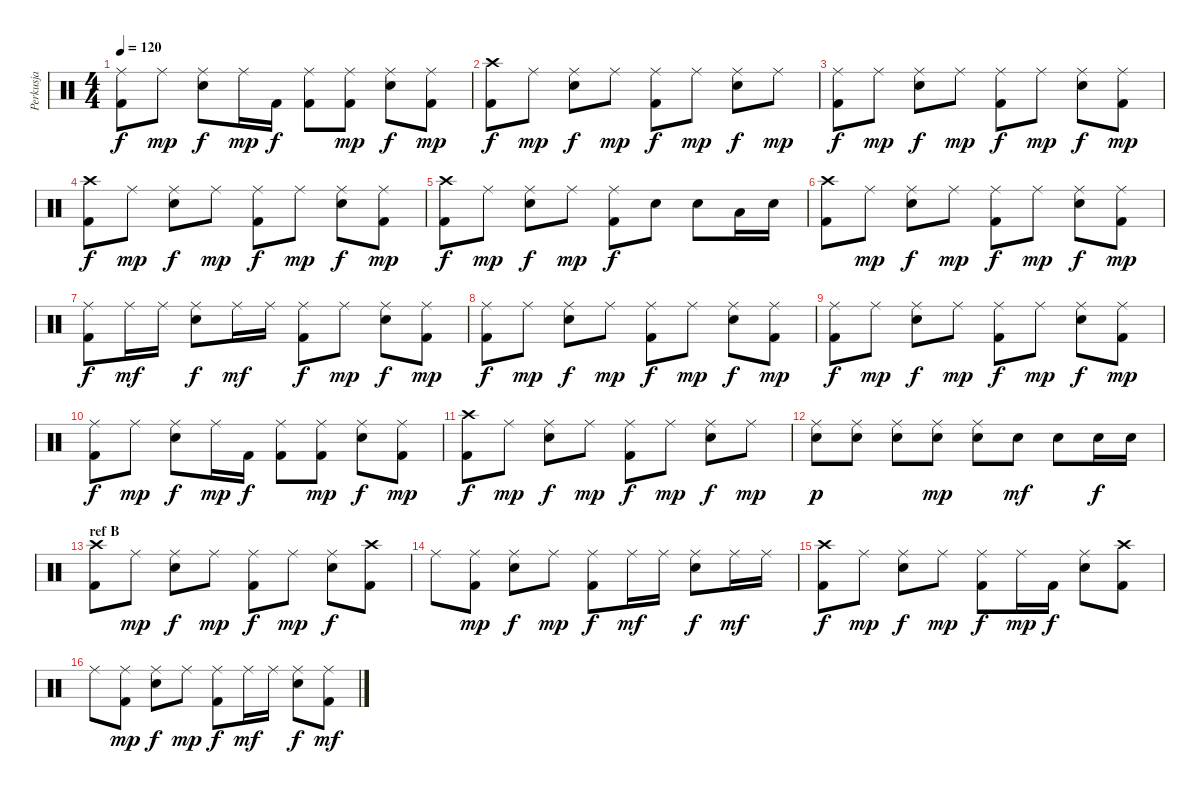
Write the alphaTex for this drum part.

\track ("Perkusja" "Perkusja") {instrument percussion}
\staff {score}
\articulation defaults
\ts (4 4)
\tempo 120
\clef neutral
\ks c
("Ride (middle)" "Kick (hit) 2").8{dy f} "Ride (middle)".8{dy mp} ("Ride (middle)" "Snare (hit) 2").8{dy f} "Ride (middle)".16{dy mp} "Kick (hit) 2".16{dy f} ("Ride (middle)" "Kick (hit) 2").8 ("Ride (middle)" "Kick (hit) 2").8{dy mp} ("Ride (middle)" "Snare (hit) 2").8{dy f} ("Ride (middle)" "Kick (hit) 2").8{dy mp} |
("Crash high (hit)" "Kick (hit) 2").8{dy f} "Ride (middle)".8{dy mp} ("Ride (middle)" "Snare (hit) 2").8{dy f} "Ride (middle)".8{dy mp} ("Ride (middle)" "Kick (hit) 2").8{dy f} "Ride (middle)".8{dy mp} ("Ride (middle)" "Snare (hit) 2").8{dy f} "Ride (middle)".8{dy mp} |
("Ride (middle)" "Kick (hit) 2").8{dy f} "Ride (middle)".8{dy mp} ("Ride (middle)" "Snare (hit) 2").8{dy f} "Ride (middle)".8{dy mp} ("Ride (middle)" "Kick (hit) 2").8{dy f} "Ride (middle)".8{dy mp} ("Ride (middle)" "Snare (hit) 2").8{dy f} ("Ride (middle)" "Kick (hit) 2").8{dy mp} |
("Crash high (hit)" "Kick (hit) 2").8{dy f} "Ride (middle)".8{dy mp} ("Ride (middle)" "Snare (hit) 2").8{dy f} "Ride (middle)".8{dy mp} ("Ride (middle)" "Kick (hit) 2").8{dy f} "Ride (middle)".8{dy mp} ("Ride (middle)" "Snare (hit) 2").8{dy f} ("Ride (middle)" "Kick (hit) 2").8{dy mp} |
("Crash high (hit)" "Kick (hit) 2").8{dy f} "Ride (middle)".8{dy mp} ("Ride (middle)" "Snare (hit) 2").8{dy f} "Ride (middle)".8{dy mp} ("Ride (middle)" "Kick (hit) 2").8{dy f} "Snare (hit) 2".8 "Snare (hit) 2".8 "Low Tom (hit)".16 "Snare (hit) 2".16 |
("Crash high (hit)" "Kick (hit) 2").8 "Ride (middle)".8{dy mp} ("Ride (middle)" "Snare (hit) 2").8{dy f} "Ride (middle)".8{dy mp} ("Ride (middle)" "Kick (hit) 2").8{dy f} "Ride (middle)".8{dy mp} ("Ride (middle)" "Snare (hit) 2").8{dy f} ("Ride (middle)" "Kick (hit) 2").8{dy mp} |
("Ride (middle)" "Kick (hit) 2").8{dy f} "Ride (middle)".16{dy mf} "Ride (middle)".16 ("Ride (middle)" "Snare (hit) 2").8{dy f} "Ride (middle)".16{dy mf} "Ride (middle)".16 ("Ride (middle)" "Kick (hit) 2").8{dy f} "Ride (middle)".8{dy mp} ("Ride (middle)" "Snare (hit) 2").8{dy f} ("Ride (middle)" "Kick (hit) 2").8{dy mp} |
("Ride (middle)" "Kick (hit) 2").8{dy f} "Ride (middle)".8{dy mp} ("Ride (middle)" "Snare (hit) 2").8{dy f} "Ride (middle)".8{dy mp} ("Ride (middle)" "Kick (hit) 2").8{dy f} "Ride (middle)".8{dy mp} ("Ride (middle)" "Snare (hit) 2").8{dy f} ("Ride (middle)" "Kick (hit) 2").8{dy mp} |
("Ride (middle)" "Kick (hit) 2").8{dy f} "Ride (middle)".8{dy mp} ("Ride (middle)" "Snare (hit) 2").8{dy f} "Ride (middle)".8{dy mp} ("Ride (middle)" "Kick (hit) 2").8{dy f} "Ride (middle)".8{dy mp} ("Ride (middle)" "Snare (hit) 2").8{dy f} ("Ride (middle)" "Kick (hit) 2").8{dy mp} |
("Ride (middle)" "Kick (hit) 2").8{dy f} "Ride (middle)".8{dy mp} ("Ride (middle)" "Snare (hit) 2").8{dy f} "Ride (middle)".16{dy mp} "Kick (hit) 2".16{dy f} ("Ride (middle)" "Kick (hit) 2").8 ("Ride (middle)" "Kick (hit) 2").8{dy mp} ("Ride (middle)" "Snare (hit) 2").8{dy f} ("Ride (middle)" "Kick (hit) 2").8{dy mp} |
("Crash high (hit)" "Kick (hit) 2").8{dy f} "Ride (middle)".8{dy mp} ("Ride (middle)" "Snare (hit) 2").8{dy f} "Ride (middle)".8{dy mp} ("Ride (middle)" "Kick (hit) 2").8{dy f} "Ride (middle)".8{dy mp} ("Ride (middle)" "Snare (hit) 2").8{dy f} "Ride (middle)".8{dy mp} |
("Ride (middle)" "Snare (hit) 2").8{dy p} ("Ride (middle)" "Snare (hit) 2").8 ("Ride (middle)" "Snare (hit) 2").8 ("Ride (middle)" "Snare (hit) 2").8{dy mp} ("Ride (middle)" "Snare (hit) 2").8 "Snare (hit) 2".8{dy mf} "Snare (hit) 2".8 "Snare (hit) 2".16{dy f} "Snare (hit) 2".16 |
\section ("" "ref B")
("Crash high (hit)" "Kick (hit) 2").8 "Ride (middle)".8{dy mp} ("Ride (middle)" "Snare (hit) 2").8{dy f} "Ride (middle)".8{dy mp} ("Ride (middle)" "Kick (hit) 2").8{dy f} "Ride (middle)".8{dy mp} ("Ride (middle)" "Snare (hit) 2").8{dy f} ("Crash high (hit)" "Kick (hit) 2").8 |
"Ride (middle)".8 ("Ride (middle)" "Kick (hit) 2").8{dy mp} ("Ride (middle)" "Snare (hit) 2").8{dy f} "Ride (middle)".8{dy mp} ("Ride (middle)" "Kick (hit) 2").8{dy f} "Ride (middle)".16{dy mf} "Ride (middle)".16 ("Ride (middle)" "Snare (hit) 2").8{dy f} "Ride (middle)".16{dy mf} "Ride (middle)".16 |
("Crash high (hit)" "Kick (hit) 2").8{dy f} "Ride (middle)".8{dy mp} ("Ride (middle)" "Snare (hit) 2").8{dy f} "Ride (middle)".8{dy mp} ("Ride (middle)" "Kick (hit) 2").8{dy f} "Ride (middle)".16{dy mp} "Kick (hit) 2".16{dy f} ("Ride (middle)" "Snare (hit) 2").8 ("Crash high (hit)" "Kick (hit) 2").8 |
"Ride (middle)".8 ("Ride (middle)" "Kick (hit) 2").8{dy mp} ("Ride (middle)" "Snare (hit) 2").8{dy f} "Ride (middle)".8{dy mp} ("Ride (middle)" "Kick (hit) 2").8{dy f} "Ride (middle)".16{dy mf} "Ride (middle)".16 ("Ride (middle)" "Snare (hit) 2").8{dy f} ("Ride (middle)" "Kick (hit) 2").8{dy mf}
